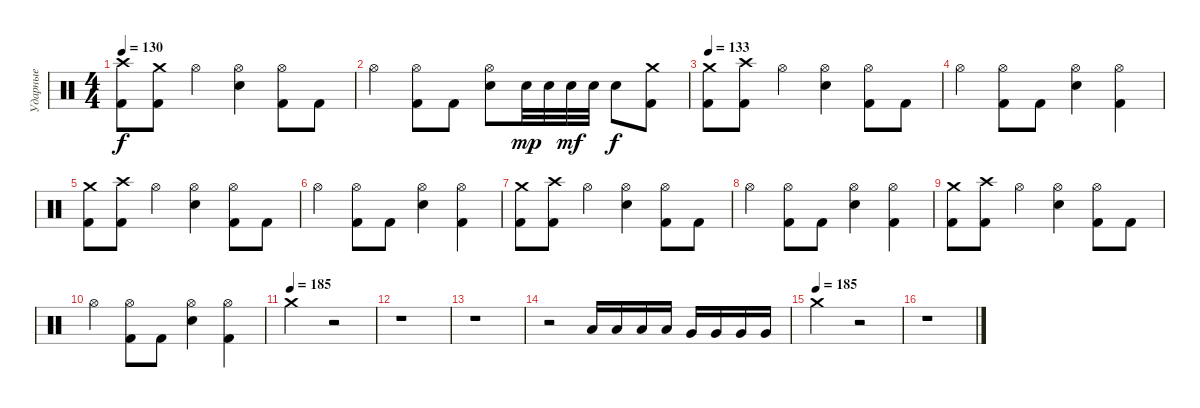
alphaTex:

\track ("Ударные" "Ударные") {instrument percussion}
\staff {score}
\articulation defaults
\ts (4 4)
\tempo 130
\clef neutral
\ks c
("Crash high (hit)" "Kick (hit) 2").8{dy f} ("Crash medium (hit)" "Kick (hit) 2").8 "Hi-Hat (open)".4 ("Hi-Hat (open)" "Electric Snare (hit)").4 ("Hi-Hat (open)" "Kick (hit) 2").8 "Kick (hit) 2".8 |
"Hi-Hat (open)".4 ("Hi-Hat (open)" "Kick (hit) 2").8 "Kick (hit) 2".8 ("Hi-Hat (open)" "Electric Snare (hit)").8 "Electric Snare (hit)".32{dy mp} "Electric Snare (hit)".32 "Electric Snare (hit)".32{dy mf} "Electric Snare (hit)".32 "Electric Snare (hit)".8{dy f} ("Crash medium (hit)" "Kick (hit) 2").8 |
\tempo 133
("Crash medium (hit)" "Kick (hit) 2").8 ("Crash high (hit)" "Kick (hit) 2").8 "Hi-Hat (open)".4 ("Hi-Hat (open)" "Electric Snare (hit)").4 ("Hi-Hat (open)" "Kick (hit) 2").8 "Kick (hit) 2".8 |
"Hi-Hat (open)".4 ("Hi-Hat (open)" "Kick (hit) 2").8 "Kick (hit) 2".8 ("Hi-Hat (open)" "Electric Snare (hit)").4 ("Hi-Hat (open)" "Kick (hit) 2").4 |
("Crash medium (hit)" "Kick (hit) 2").8 ("Crash high (hit)" "Kick (hit) 2").8 "Hi-Hat (open)".4 ("Hi-Hat (open)" "Electric Snare (hit)").4 ("Hi-Hat (open)" "Kick (hit) 2").8 "Kick (hit) 2".8 |
"Hi-Hat (open)".4 ("Hi-Hat (open)" "Kick (hit) 2").8 "Kick (hit) 2".8 ("Hi-Hat (open)" "Electric Snare (hit)").4 ("Hi-Hat (open)" "Kick (hit) 2").4 |
("Crash medium (hit)" "Kick (hit) 2").8 ("Crash high (hit)" "Kick (hit) 2").8 "Hi-Hat (open)".4 ("Hi-Hat (open)" "Electric Snare (hit)").4 ("Hi-Hat (open)" "Kick (hit) 2").8 "Kick (hit) 2".8 |
"Hi-Hat (open)".4 ("Hi-Hat (open)" "Kick (hit) 2").8 "Kick (hit) 2".8 ("Hi-Hat (open)" "Electric Snare (hit)").4 ("Hi-Hat (open)" "Kick (hit) 2").4 |
("Crash medium (hit)" "Kick (hit) 2").8 ("Crash high (hit)" "Kick (hit) 2").8 "Hi-Hat (open)".4 ("Hi-Hat (open)" "Electric Snare (hit)").4 ("Hi-Hat (open)" "Kick (hit) 2").8 "Kick (hit) 2".8 |
"Hi-Hat (open)".4 ("Hi-Hat (open)" "Kick (hit) 2").8 "Kick (hit) 2".8 ("Hi-Hat (open)" "Electric Snare (hit)").4 ("Hi-Hat (open)" "Kick (hit) 2").4 |
\tempo (185)
"Crash medium (hit)".2 r.2 |
r.1 |
r.1 |
r.2 "Low Tom (hit)".16 "Low Tom (hit)".16 "Low Tom (hit)".16 "Low Tom (hit)".16 "Very Low Tom (hit)".16 "Very Low Tom (hit)".16 "Very Low Tom (hit)".16 "Very Low Tom (hit)".16 |
\tempo (185)
"Crash medium (hit)".2 r.2 |
r.1
